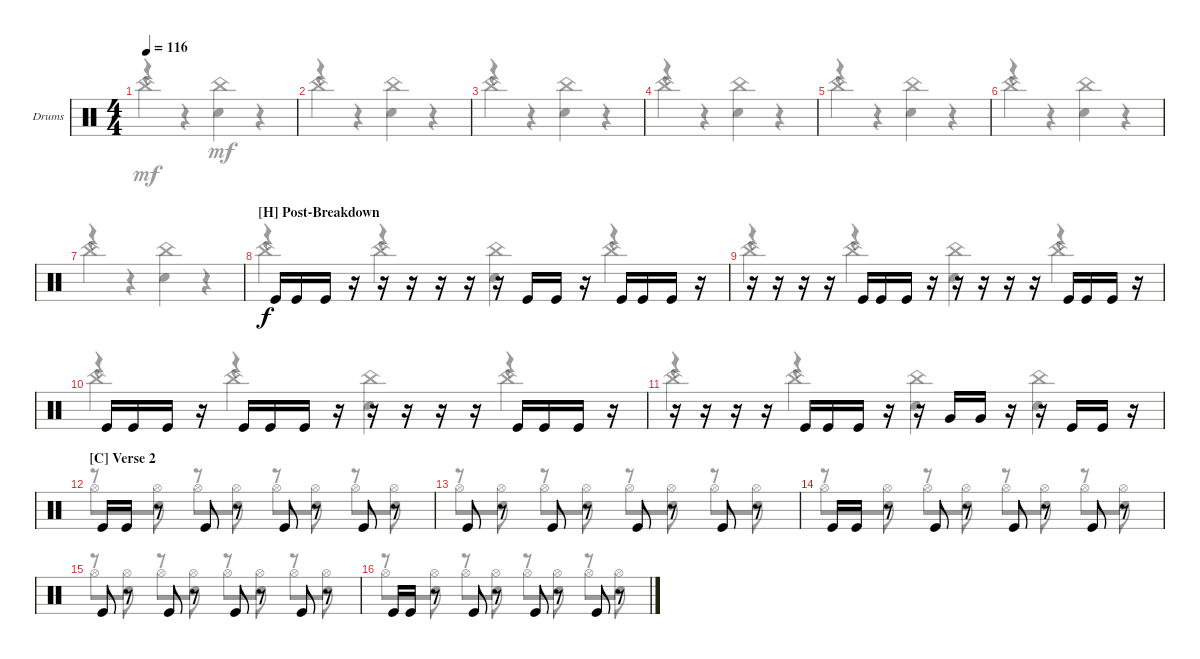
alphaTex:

\defaultSystemsLayout 4
\bracketExtendMode groupsimilarinstruments
\firstSystemTrackNameOrientation horizontal
\otherSystemsTrackNameOrientation horizontal
\track ("Drumkit" "Drums") {instrument percussion}
\staff {score}
\articulation defaults
\voice
\ts (4 4)
\tempo 116
\clef neutral
\ks c
|
|
|
|
|
|
|
\section ("H" "Post-Breakdown")
"Kick (hit)".16 "Kick (hit)".16 "Kick (hit)".16 r.16 r.16 r.16 r.16 r.16 r.16 "Kick (hit)".16 "Kick (hit)".16 r.16 "Kick (hit)".16 "Kick (hit)".16 "Kick (hit)".16 r.16 |
r.16 r.16 r.16 r.16 "Kick (hit)".16 "Kick (hit)".16 "Kick (hit)".16 r.16 r.16 r.16 r.16 r.16 "Kick (hit)".16 "Kick (hit)".16 "Kick (hit)".16 r.16 |
"Kick (hit)".16 "Kick (hit)".16 "Kick (hit)".16 r.16 "Kick (hit)".16 "Kick (hit)".16 "Kick (hit)".16 r.16 r.16 r.16 r.16 r.16 "Kick (hit)".16 "Kick (hit)".16 "Kick (hit)".16 r.16 |
r.16 r.16 r.16 r.16 "Kick (hit)".16 "Kick (hit)".16 "Kick (hit)".16 r.16 r.16 "Very Low Tom (hit)".16 "Very Low Tom (hit)".16 r.16 r.16 "Kick (hit)".16 "Kick (hit)".16 r.16 |
\section ("C" "Verse 2")
"Kick (hit)".16 "Kick (hit)".16 r.8 "Kick (hit)".8 r.8 "Kick (hit)".8 r.8 "Kick (hit)".8 r.8 |
"Kick (hit)".8 r.8 "Kick (hit)".8 r.8 "Kick (hit)".8 r.8 "Kick (hit)".8 r.8 |
"Kick (hit)".16 "Kick (hit)".16 r.8 "Kick (hit)".8 r.8 "Kick (hit)".8 r.8 "Kick (hit)".8 r.8 |
"Kick (hit)".8 r.8 "Kick (hit)".8 r.8 "Kick (hit)".8 r.8 "Kick (hit)".8 r.8 |
"Kick (hit)".16 "Kick (hit)".16 r.8 "Kick (hit)".8 r.8 "Kick (hit)".8 r.8 "Kick (hit)".8 r.8
\voice
\clef neutral
\ottava regular
\simile none
\ks c
r.4{dy mf} r.4 "Snare (hit) 2".4 r.4 |
r.4 r.4 "Snare (hit) 2".4 r.4 |
r.4 r.4 "Snare (hit) 2".4 r.4 |
r.4 r.4 "Snare (hit) 2".4 r.4 |
r.4 r.4 "Snare (hit) 2".4 r.4 |
r.4 r.4 "Snare (hit) 2".4 r.4 |
r.4 r.4 "Snare (hit) 2".4 r.4 |
r.4 r.4 "Snare (hit) 2".4 r.4 |
r.4 r.4 "Snare (hit) 2".4 r.4 |
r.4 r.4 "Snare (hit) 2".4 r.4 |
r.4 r.4 "Snare (hit) 2".4 "Snare (hit) 2".4 |
r.8 "Snare (hit) 2".8 r.8 "Snare (hit) 2".8 r.8 "Snare (hit) 2".8 r.8 "Snare (hit) 2".8 |
r.8 "Snare (hit) 2".8 r.8 "Snare (hit) 2".8 r.8 "Snare (hit) 2".8 r.8 "Snare (hit) 2".8 |
r.8 "Snare (hit) 2".8 r.8 "Snare (hit) 2".8 r.8 "Snare (hit) 2".8 r.8 "Snare (hit) 2".8 |
r.8 "Snare (hit) 2".8 r.8 "Snare (hit) 2".8 r.8 "Snare (hit) 2".8 r.8 "Snare (hit) 2".8 |
r.8 "Snare (hit) 2".8 r.8 "Snare (hit) 2".8 r.8 "Snare (hit) 2".8 r.8 "Snare (hit) 2".8
\voice
\clef neutral
\ottava regular
\simile none
\ks c "China (hit)".2{dy mf} "China (hit)".2
|
"China (hit)".2 "China (hit)".2 |
"China (hit)".2 "China (hit)".2 |
"China (hit)".2 "China (hit)".2 |
"China (hit)".2 "China (hit)".2 |
"China (hit)".2 "China (hit)".2 |
"China (hit)".2 "China (hit)".2 |
"China (hit)".4 "China (hit)".4 "China (hit)".4 "China (hit)".4 |
"China (hit)".4 "China (hit)".4 "China (hit)".4 "China (hit)".4 |
"China (hit)".4 "China (hit)".4 "China (hit)".4 "China (hit)".4 |
"China (hit)".4 "China (hit)".4 "China (hit)".4 "China (hit)".4 |
"Hi-Hat (open)".8 "Hi-Hat (open)".8 "Hi-Hat (open)".8 "Hi-Hat (open)".8 "Hi-Hat (open)".8 "Hi-Hat (open)".8 "Hi-Hat (open)".8 "Hi-Hat (open)".8 |
"Hi-Hat (open)".8 "Hi-Hat (open)".8 "Hi-Hat (open)".8 "Hi-Hat (open)".8 "Hi-Hat (open)".8 "Hi-Hat (open)".8 "Hi-Hat (open)".8 "Hi-Hat (open)".8 |
"Hi-Hat (open)".8 "Hi-Hat (open)".8 "Hi-Hat (open)".8 "Hi-Hat (open)".8 "Hi-Hat (open)".8 "Hi-Hat (open)".8 "Hi-Hat (open)".8 "Hi-Hat (open)".8 |
"Hi-Hat (open)".8 "Hi-Hat (open)".8 "Hi-Hat (open)".8 "Hi-Hat (open)".8 "Hi-Hat (open)".8 "Hi-Hat (open)".8 "Hi-Hat (open)".8 "Hi-Hat (open)".8 |
"Hi-Hat (open)".8 "Hi-Hat (open)".8 "Hi-Hat (open)".8 "Hi-Hat (open)".8 "Hi-Hat (open)".8 "Hi-Hat (open)".8 "Hi-Hat (open)".8 "Hi-Hat (open)".8
